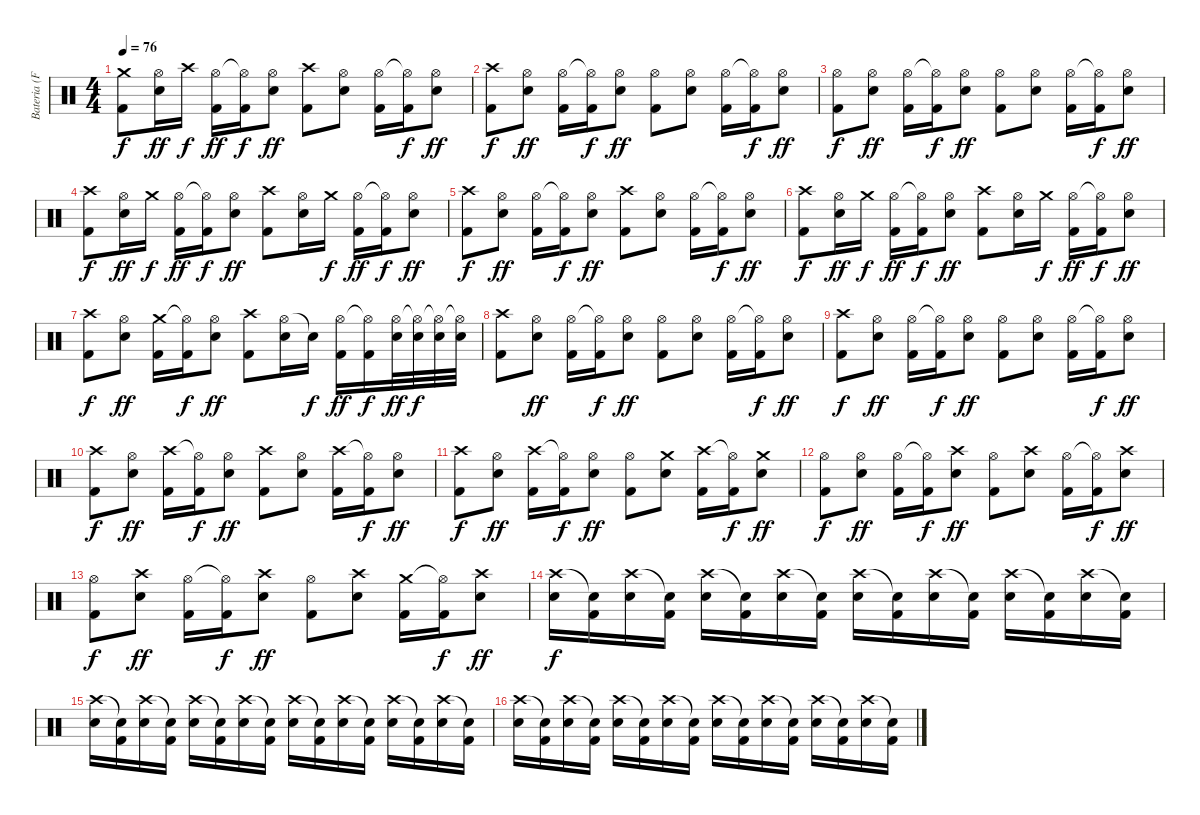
\track ("Bateria (Fê Lemos)" "Bateria (F") {instrument percussion}
\staff {score}
\articulation defaults
\ts (4 4)
\tempo 76
\clef neutral
\ks c
("Crash medium (hit)" "Kick (hit) 2").8{dy f} ("Hi-Hat (open)" "Electric Snare (hit)").16{dy ff} "Crash high (hit)".16{dy f} ("Hi-Hat (open)" "Kick (hit) 2").16{dy ff} ("Hi-Hat (open)"{t} "Kick (hit) 2").16{dy f} ("Hi-Hat (open)" "Electric Snare (hit)").8{dy ff} ("Crash high (hit)" "Kick (hit) 2").8 ("Hi-Hat (open)" "Electric Snare (hit)").8 ("Hi-Hat (open)" "Kick (hit) 2").16 ("Hi-Hat (open)"{t} "Kick (hit) 2").16{dy f} ("Hi-Hat (open)" "Electric Snare (hit)").8{dy ff} |
("Crash high (hit)" "Kick (hit) 2").8{dy f} ("Hi-Hat (open)" "Electric Snare (hit)").8{dy ff} ("Hi-Hat (open)" "Kick (hit) 2").16 ("Hi-Hat (open)"{t} "Kick (hit) 2").16{dy f} ("Hi-Hat (open)" "Electric Snare (hit)").8{dy ff} ("Hi-Hat (open)" "Kick (hit) 2").8 ("Hi-Hat (open)" "Electric Snare (hit)").8 ("Hi-Hat (open)" "Kick (hit) 2").16 ("Hi-Hat (open)"{t} "Kick (hit) 2").16{dy f} ("Hi-Hat (open)" "Electric Snare (hit)").8{dy ff} |
("Hi-Hat (open)" "Kick (hit) 2").8{dy f} ("Hi-Hat (open)" "Electric Snare (hit)").8{dy ff} ("Hi-Hat (open)" "Kick (hit) 2").16 ("Hi-Hat (open)"{t} "Kick (hit) 2").16{dy f} ("Hi-Hat (open)" "Electric Snare (hit)").8{dy ff} ("Hi-Hat (open)" "Kick (hit) 2").8 ("Hi-Hat (open)" "Electric Snare (hit)").8 ("Hi-Hat (open)" "Kick (hit) 2").16 ("Hi-Hat (open)"{t} "Kick (hit) 2").16{dy f} ("Hi-Hat (open)" "Electric Snare (hit)").8{dy ff} |
("Crash high (hit)" "Kick (hit) 2").8{dy f} ("Hi-Hat (open)" "Electric Snare (hit)").16{dy ff} "Crash medium (hit)".16{dy f} ("Hi-Hat (open)" "Kick (hit) 2").16{dy ff} ("Hi-Hat (open)"{t} "Kick (hit) 2").16{dy f} ("Hi-Hat (open)" "Electric Snare (hit)").8{dy ff} ("Crash high (hit)" "Kick (hit) 2").8 ("Hi-Hat (open)" "Electric Snare (hit)").16 "Crash medium (hit)".16{dy f} ("Hi-Hat (open)" "Kick (hit) 2").16{dy ff} ("Hi-Hat (open)"{t} "Kick (hit) 2").16{dy f} ("Hi-Hat (open)" "Electric Snare (hit)").8{dy ff} |
("Crash high (hit)" "Kick (hit) 2").8{dy f} ("Hi-Hat (open)" "Electric Snare (hit)").8{dy ff} ("Hi-Hat (open)" "Kick (hit) 2").16 ("Hi-Hat (open)"{t} "Kick (hit) 2").16{dy f} ("Hi-Hat (open)" "Electric Snare (hit)").8{dy ff} ("Crash high (hit)" "Kick (hit) 2").8 ("Hi-Hat (open)" "Electric Snare (hit)").8 ("Hi-Hat (open)" "Kick (hit) 2").16 ("Hi-Hat (open)"{t} "Kick (hit) 2").16{dy f} ("Hi-Hat (open)" "Electric Snare (hit)").8{dy ff} |
("Crash high (hit)" "Kick (hit) 2").8{dy f} ("Hi-Hat (open)" "Electric Snare (hit)").16{dy ff} "Crash medium (hit)".16{dy f} ("Hi-Hat (open)" "Kick (hit) 2").16{dy ff} ("Hi-Hat (open)"{t} "Kick (hit) 2").16{dy f} ("Hi-Hat (open)" "Electric Snare (hit)").8{dy ff} ("Crash high (hit)" "Kick (hit) 2").8 ("Hi-Hat (open)" "Electric Snare (hit)").16 "Crash medium (hit)".16{dy f} ("Hi-Hat (open)" "Kick (hit) 2").16{dy ff} ("Hi-Hat (open)"{t} "Kick (hit) 2").16{dy f} ("Hi-Hat (open)" "Electric Snare (hit)").8{dy ff} |
("Crash high (hit)" "Kick (hit) 2").8{dy f} ("Hi-Hat (open)" "Electric Snare (hit)").8{dy ff} ("Crash medium (hit)" "Kick (hit) 2").16 ("Hi-Hat (open)"{t} "Kick (hit) 2").16{dy f} ("Hi-Hat (open)" "Electric Snare (hit)").8{dy ff} ("Crash high (hit)" "Kick (hit) 2").8 ("Hi-Hat (open)" "Electric Snare (hit)").16 "Snare (hit)"{t}.16{dy f} ("Hi-Hat (open)" "Kick (hit) 2").16{dy ff} ("Hi-Hat (open)"{t} "Kick (hit) 2").16{dy f} ("Hi-Hat (open)" "Electric Snare (hit)").32{dy ff} ("Hi-Hat (open)"{t} "Electric Snare (hit)").32{dy f} ("Hi-Hat (open)"{t} "Electric Snare (hit)").32 ("Hi-Hat (open)"{t} "Electric Snare (hit)").32 |
("Crash high (hit)" "Kick (hit) 2").8 ("Hi-Hat (open)" "Electric Snare (hit)").8{dy ff} ("Hi-Hat (open)" "Kick (hit) 2").16 ("Hi-Hat (open)"{t} "Kick (hit) 2").16{dy f} ("Hi-Hat (open)" "Electric Snare (hit)").8{dy ff} ("Hi-Hat (open)" "Kick (hit) 2").8 ("Hi-Hat (open)" "Electric Snare (hit)").8 ("Hi-Hat (open)" "Kick (hit) 2").16 ("Hi-Hat (open)"{t} "Kick (hit) 2").16{dy f} ("Hi-Hat (open)" "Electric Snare (hit)").8{dy ff} |
("Crash high (hit)" "Kick (hit) 2").8{dy f} ("Hi-Hat (open)" "Electric Snare (hit)").8{dy ff} ("Hi-Hat (open)" "Kick (hit) 2").16 ("Hi-Hat (open)"{t} "Kick (hit) 2").16{dy f} ("Hi-Hat (open)" "Electric Snare (hit)").8{dy ff} ("Hi-Hat (open)" "Kick (hit) 2").8 ("Hi-Hat (open)" "Electric Snare (hit)").8 ("Hi-Hat (open)" "Kick (hit) 2").16 ("Hi-Hat (open)"{t} "Kick (hit) 2").16{dy f} ("Hi-Hat (open)" "Electric Snare (hit)").8{dy ff} |
("Crash high (hit)" "Kick (hit) 2").8{dy f} ("Hi-Hat (open)" "Electric Snare (hit)").8{dy ff} ("Crash high (hit)" "Kick (hit) 2").16 ("Hi-Hat (open)"{t} "Kick (hit) 2").16{dy f} ("Hi-Hat (open)" "Electric Snare (hit)").8{dy ff} ("Crash high (hit)" "Kick (hit) 2").8 ("Hi-Hat (open)" "Electric Snare (hit)").8 ("Crash high (hit)" "Kick (hit) 2").16 ("Hi-Hat (open)"{t} "Kick (hit) 2").16{dy f} ("Hi-Hat (open)" "Electric Snare (hit)").8{dy ff} |
("Crash high (hit)" "Kick (hit) 2").8{dy f} ("Hi-Hat (open)" "Electric Snare (hit)").8{dy ff} ("Crash high (hit)" "Kick (hit) 2").16 ("Hi-Hat (open)"{t} "Kick (hit) 2").16{dy f} ("Hi-Hat (open)" "Electric Snare (hit)").8{dy ff} ("Hi-Hat (open)" "Kick (hit) 2").8 ("Crash medium (hit)" "Electric Snare (hit)").8 ("Crash high (hit)" "Kick (hit) 2").16 ("Hi-Hat (open)"{t} "Kick (hit) 2").16{dy f} ("Crash medium (hit)" "Electric Snare (hit)").8{dy ff} |
("Hi-Hat (open)" "Kick (hit) 2").8{dy f} ("Hi-Hat (open)" "Electric Snare (hit)").8{dy ff} ("Hi-Hat (open)" "Kick (hit) 2").16 ("Hi-Hat (open)"{t} "Kick (hit) 2").16{dy f} ("Crash high (hit)" "Electric Snare (hit)").8{dy ff} ("Hi-Hat (open)" "Kick (hit) 2").8 ("Crash high (hit)" "Electric Snare (hit)").8 ("Hi-Hat (open)" "Kick (hit) 2").16 ("Hi-Hat (open)"{t} "Kick (hit) 2").16{dy f} ("Crash high (hit)" "Electric Snare (hit)").8{dy ff} |
("Hi-Hat (open)" "Kick (hit) 2").8{dy f} ("Crash high (hit)" "Electric Snare (hit)").8{dy ff} ("Hi-Hat (open)" "Kick (hit) 2").16 ("Hi-Hat (open)"{t} "Kick (hit) 2").16{dy f} ("Crash high (hit)" "Electric Snare (hit)").8{dy ff} ("Hi-Hat (open)" "Kick (hit) 2").8 ("Crash high (hit)" "Electric Snare (hit)").8 ("Crash medium (hit)" "Kick (hit) 2").16 ("Hi-Hat (open)"{t} "Kick (hit) 2").16{dy f} ("Crash high (hit)" "Electric Snare (hit)").8{dy ff} |
("Crash high (hit)" "Electric Snare (hit)").16{dy f} ("Snare (hit)"{t} "Kick (hit) 2").16 ("Crash high (hit)" "Electric Snare (hit)").16 ("Snare (hit)"{t} "Kick (hit) 2").16 ("Crash high (hit)" "Electric Snare (hit)").16 ("Snare (hit)"{t} "Kick (hit) 2").16 ("Crash high (hit)" "Electric Snare (hit)").16 ("Snare (hit)"{t} "Kick (hit) 2").16 ("Crash high (hit)" "Electric Snare (hit)").16 ("Snare (hit)"{t} "Kick (hit) 2").16 ("Crash high (hit)" "Electric Snare (hit)").16 ("Snare (hit)"{t} "Kick (hit) 2").16 ("Crash high (hit)" "Electric Snare (hit)").16 ("Snare (hit)"{t} "Kick (hit) 2").16 ("Crash high (hit)" "Electric Snare (hit)").16 ("Snare (hit)"{t} "Kick (hit) 2").16 |
("Crash high (hit)" "Electric Snare (hit)").16 ("Snare (hit)"{t} "Kick (hit) 2").16 ("Crash high (hit)" "Electric Snare (hit)").16 ("Snare (hit)"{t} "Kick (hit) 2").16 ("Crash high (hit)" "Electric Snare (hit)").16 ("Snare (hit)"{t} "Kick (hit) 2").16 ("Crash high (hit)" "Electric Snare (hit)").16 ("Snare (hit)"{t} "Kick (hit) 2").16 ("Crash high (hit)" "Electric Snare (hit)").16 ("Snare (hit)"{t} "Kick (hit) 2").16 ("Crash high (hit)" "Electric Snare (hit)").16 ("Snare (hit)"{t} "Kick (hit) 2").16 ("Crash high (hit)" "Electric Snare (hit)").16 ("Snare (hit)"{t} "Kick (hit) 2").16 ("Crash high (hit)" "Electric Snare (hit)").16 ("Snare (hit)"{t} "Kick (hit) 2").16 |
("Crash high (hit)" "Electric Snare (hit)").16{volume 0} ("Snare (hit)"{t} "Kick (hit) 2").16 ("Crash high (hit)" "Electric Snare (hit)").16 ("Snare (hit)"{t} "Kick (hit) 2").16 ("Crash high (hit)" "Electric Snare (hit)").16 ("Snare (hit)"{t} "Kick (hit) 2").16 ("Crash high (hit)" "Electric Snare (hit)").16 ("Snare (hit)"{t} "Kick (hit) 2").16 ("Crash high (hit)" "Electric Snare (hit)").16 ("Snare (hit)"{t} "Kick (hit) 2").16 ("Crash high (hit)" "Electric Snare (hit)").16 ("Snare (hit)"{t} "Kick (hit) 2").16 ("Crash high (hit)" "Electric Snare (hit)").16 ("Snare (hit)"{t} "Kick (hit) 2").16 ("Crash high (hit)" "Electric Snare (hit)").16 ("Snare (hit)"{t} "Kick (hit) 2").16
